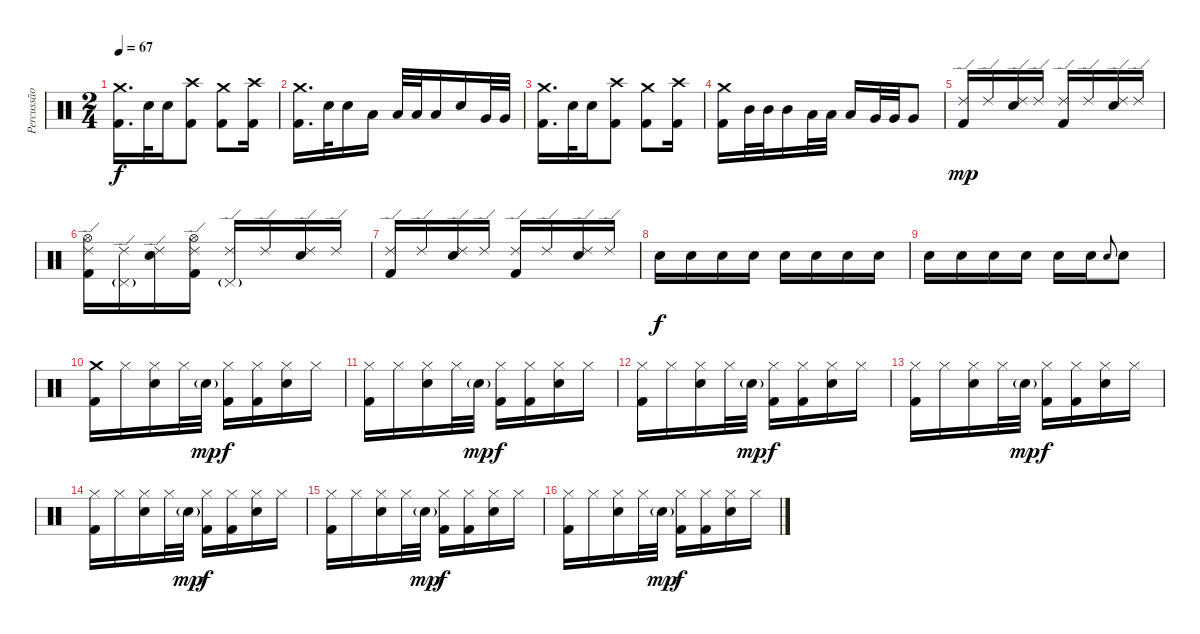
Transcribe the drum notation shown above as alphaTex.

\track ("Percussão" "Percussão") {instrument percussion}
\staff {score}
\articulation defaults
\ts (2 4)
\tempo 67
\clef neutral
\ks c
("Crash medium (hit)" "Kick (hit) 2").16{d dy f} "Snare (hit) 2".32 "Snare (hit) 2".16 ("Crash high (hit)" "Kick (hit) 2").8 ("Crash medium (hit)" "Kick (hit) 2").8 ("Crash high (hit)" "Kick (hit) 2").16 |
("Crash medium (hit)" "Kick (hit) 2").16{d} "Snare (hit) 2".32 "Snare (hit) 2".16 "Low Floor Tom (hit)".16 "Low Tom (hit)".32 "Low Tom (hit)".32 "Low Tom (hit)".16 "Snare (hit) 2".16 "Very Low Tom (hit)".32 "Very Low Tom (hit)".32 |
("Crash medium (hit)" "Kick (hit) 2").16{d} "Snare (hit) 2".32 "Snare (hit) 2".16 ("Crash high (hit)" "Kick (hit) 2").8 ("Crash medium (hit)" "Kick (hit) 2").8 ("Crash high (hit)" "Kick (hit) 2").16 |
("Crash medium (hit)" "Kick (hit) 2").16 "Mid Tom (hit)".32 "Mid Tom (hit)".32 "Mid Tom (hit)".16 "Low Tom (hit)".32 "Low Tom (hit)".32 "Low Tom (hit)".16 "Very Low Tom (hit)".32 "Very Low Tom (hit)".32 "Very Low Tom (hit)".8 |
("Ride (edge) 2" "Kick (hit) 2").16{dy mp} "Ride (edge) 2".16 ("Ride (edge) 2" "Snare (hit) 2").16 "Ride (edge) 2".16 ("Ride (edge) 2" "Kick (hit) 2").16 "Ride (edge) 2".16 ("Ride (edge) 2" "Snare (hit) 2").16 "Ride (edge) 2".16 |
("Ride (edge) 2" "Hi-Hat (open)" "Kick (hit) 2").16 ("Ride (edge) 2" "Pedal Hi-Hat (hit)"{g}).16 ("Ride (edge) 2" "Snare (hit) 2").16 ("Ride (edge) 2" "Hi-Hat (open)" "Kick (hit) 2").16 ("Ride (edge) 2" "Pedal Hi-Hat (hit)"{g}).16 "Ride (edge) 2".16 ("Ride (edge) 2" "Snare (hit) 2").16 "Ride (edge) 2".16 |
("Ride (edge) 2" "Kick (hit) 2").16 "Ride (edge) 2".16 ("Ride (edge) 2" "Snare (hit) 2").16 "Ride (edge) 2".16 ("Ride (edge) 2" "Kick (hit) 2").16 "Ride (edge) 2".16 ("Ride (edge) 2" "Snare (hit) 2").16 "Ride (edge) 2".16 |
"Snare (hit) 2".16{dy f volume 4} "Snare (hit) 2".16{volume 13} "Snare (hit) 2".16 "Snare (hit) 2".16 "Snare (hit) 2".16 "Snare (hit) 2".16 "Snare (hit) 2".16 "Snare (hit) 2".16 |
"Snare (hit) 2".16 "Snare (hit) 2".16 "Snare (hit) 2".16 "Snare (hit) 2".16 "Snare (hit) 2".16 "Snare (hit) 2".16 "Snare (hit) 2".8{gr onbeat} "Snare (hit) 2".8 |
("Crash medium (hit)" "Kick (hit) 2").16 "Hi-Hat (closed)".16 ("Hi-Hat (closed)" "Snare (hit) 2").16 "Hi-Hat (closed)".32 "Snare (hit) 2"{g}.32{dy mp} ("Hi-Hat (closed)" "Kick (hit) 2").16{dy f} ("Hi-Hat (closed)" "Kick (hit) 2").16 ("Hi-Hat (closed)" "Snare (hit) 2").16 "Hi-Hat (closed)".16 |
("Hi-Hat (closed)" "Kick (hit) 2").16 "Hi-Hat (closed)".16 ("Hi-Hat (closed)" "Snare (hit) 2").16 "Hi-Hat (closed)".32 "Snare (hit) 2"{g}.32{dy mp} ("Hi-Hat (closed)" "Kick (hit) 2").16{dy f} ("Hi-Hat (closed)" "Kick (hit) 2").16 ("Hi-Hat (closed)" "Snare (hit) 2").16 "Hi-Hat (closed)".16 |
("Hi-Hat (closed)" "Kick (hit) 2").16 "Hi-Hat (closed)".16 ("Hi-Hat (closed)" "Snare (hit) 2").16 "Hi-Hat (closed)".32 "Snare (hit) 2"{g}.32{dy mp} ("Hi-Hat (closed)" "Kick (hit) 2").16{dy f} ("Hi-Hat (closed)" "Kick (hit) 2").16 ("Hi-Hat (closed)" "Snare (hit) 2").16 "Hi-Hat (closed)".16 |
("Hi-Hat (closed)" "Kick (hit) 2").16 "Hi-Hat (closed)".16 ("Hi-Hat (closed)" "Snare (hit) 2").16 "Hi-Hat (closed)".32 "Snare (hit) 2"{g}.32{dy mp} ("Hi-Hat (closed)" "Kick (hit) 2").16{dy f} ("Hi-Hat (closed)" "Kick (hit) 2").16 ("Hi-Hat (closed)" "Snare (hit) 2").16 "Hi-Hat (closed)".16 |
("Hi-Hat (closed)" "Kick (hit) 2").16 "Hi-Hat (closed)".16 ("Hi-Hat (closed)" "Snare (hit) 2").16 "Hi-Hat (closed)".32 "Snare (hit) 2"{g}.32{dy mp} ("Hi-Hat (closed)" "Kick (hit) 2").16{dy f} ("Hi-Hat (closed)" "Kick (hit) 2").16 ("Hi-Hat (closed)" "Snare (hit) 2").16 "Hi-Hat (closed)".16 |
("Hi-Hat (closed)" "Kick (hit) 2").16 "Hi-Hat (closed)".16 ("Hi-Hat (closed)" "Snare (hit) 2").16 "Hi-Hat (closed)".32 "Snare (hit) 2"{g}.32{dy mp} ("Hi-Hat (closed)" "Kick (hit) 2").16{dy f} ("Hi-Hat (closed)" "Kick (hit) 2").16 ("Hi-Hat (closed)" "Snare (hit) 2").16 "Hi-Hat (closed)".16 |
("Hi-Hat (closed)" "Kick (hit) 2").16 "Hi-Hat (closed)".16 ("Hi-Hat (closed)" "Snare (hit) 2").16 "Hi-Hat (closed)".32 "Snare (hit) 2"{g}.32{dy mp} ("Hi-Hat (closed)" "Kick (hit) 2").16{dy f} ("Hi-Hat (closed)" "Kick (hit) 2").16 ("Hi-Hat (closed)" "Snare (hit) 2").16 "Hi-Hat (closed)".16
